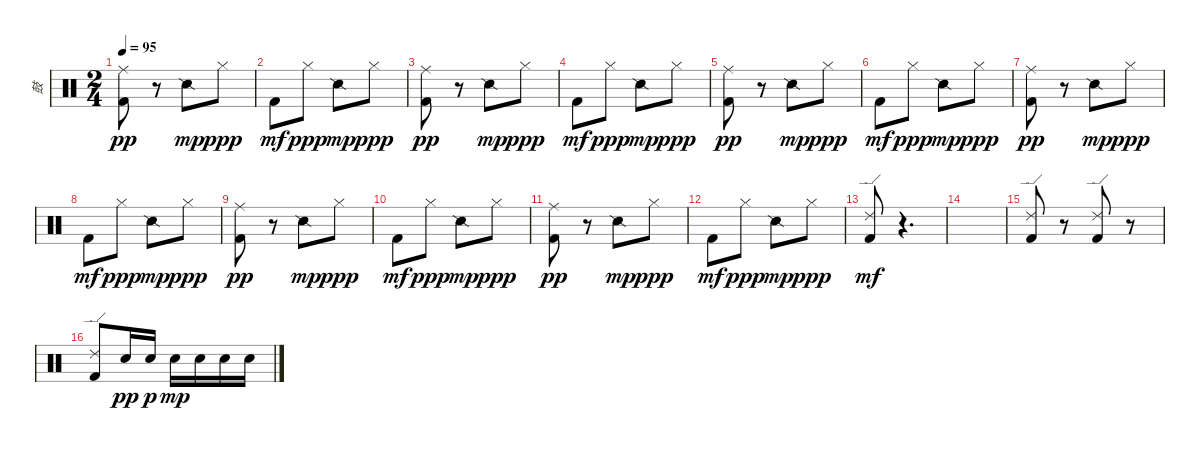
\track ("鼓" "鼓") {instrument percussion}
\staff {score}
\articulation defaults
\ts (2 4)
\tempo 95
\clef neutral
\ks c
("Kick (hit) 2" "Ride (middle)").8{dy pp} r.8 "Snare (side stick) 2".8{dy mp} "Hi-Hat (closed)".8{dy ppp} |
"Kick (hit) 2".8{dy mf} "Hi-Hat (closed)".8{dy ppp} "Snare (side stick) 2".8{dy mp} "Hi-Hat (closed)".8{dy ppp} |
("Kick (hit) 2" "Ride (middle)").8{dy pp} r.8 "Snare (side stick) 2".8{dy mp} "Hi-Hat (closed)".8{dy ppp} |
"Kick (hit) 2".8{dy mf} "Hi-Hat (closed)".8{dy ppp} "Snare (side stick) 2".8{dy mp} "Hi-Hat (closed)".8{dy ppp} |
("Kick (hit) 2" "Ride (middle)").8{dy pp} r.8 "Snare (side stick) 2".8{dy mp} "Hi-Hat (closed)".8{dy ppp} |
"Kick (hit) 2".8{dy mf} "Hi-Hat (closed)".8{dy ppp} "Snare (side stick) 2".8{dy mp} "Hi-Hat (closed)".8{dy ppp} |
("Kick (hit) 2" "Ride (middle)").8{dy pp} r.8 "Snare (side stick) 2".8{dy mp} "Hi-Hat (closed)".8{dy ppp} |
"Kick (hit) 2".8{dy mf} "Hi-Hat (closed)".8{dy ppp} "Snare (side stick) 2".8{dy mp} "Hi-Hat (closed)".8{dy ppp} |
("Kick (hit) 2" "Ride (middle)").8{dy pp} r.8 "Snare (side stick) 2".8{dy mp} "Hi-Hat (closed)".8{dy ppp} |
"Kick (hit) 2".8{dy mf} "Hi-Hat (closed)".8{dy ppp} "Snare (side stick) 2".8{dy mp} "Hi-Hat (closed)".8{dy ppp} |
("Kick (hit) 2" "Ride (middle)").8{dy pp} r.8 "Snare (side stick) 2".8{dy mp} "Hi-Hat (closed)".8{dy ppp} |
"Kick (hit) 2".8{dy mf} "Hi-Hat (closed)".8{dy ppp} "Snare (side stick) 2".8{dy mp} "Hi-Hat (closed)".8{dy ppp} |
("Kick (hit) 2" "Ride (edge) 2").8{dy mf} r.4{d} |
|
("Kick (hit) 2" "Ride (edge) 2").8 r.8 ("Kick (hit) 2" "Ride (edge) 2").8 r.8 |
("Kick (hit) 2" "Ride (edge) 2").8 "Electric Snare (hit)".16{dy pp} "Electric Snare (hit)".16{dy p} "Electric Snare (hit)".16{dy mp} "Electric Snare (hit)".16 "Electric Snare (hit)".16 "Electric Snare (hit)".16
